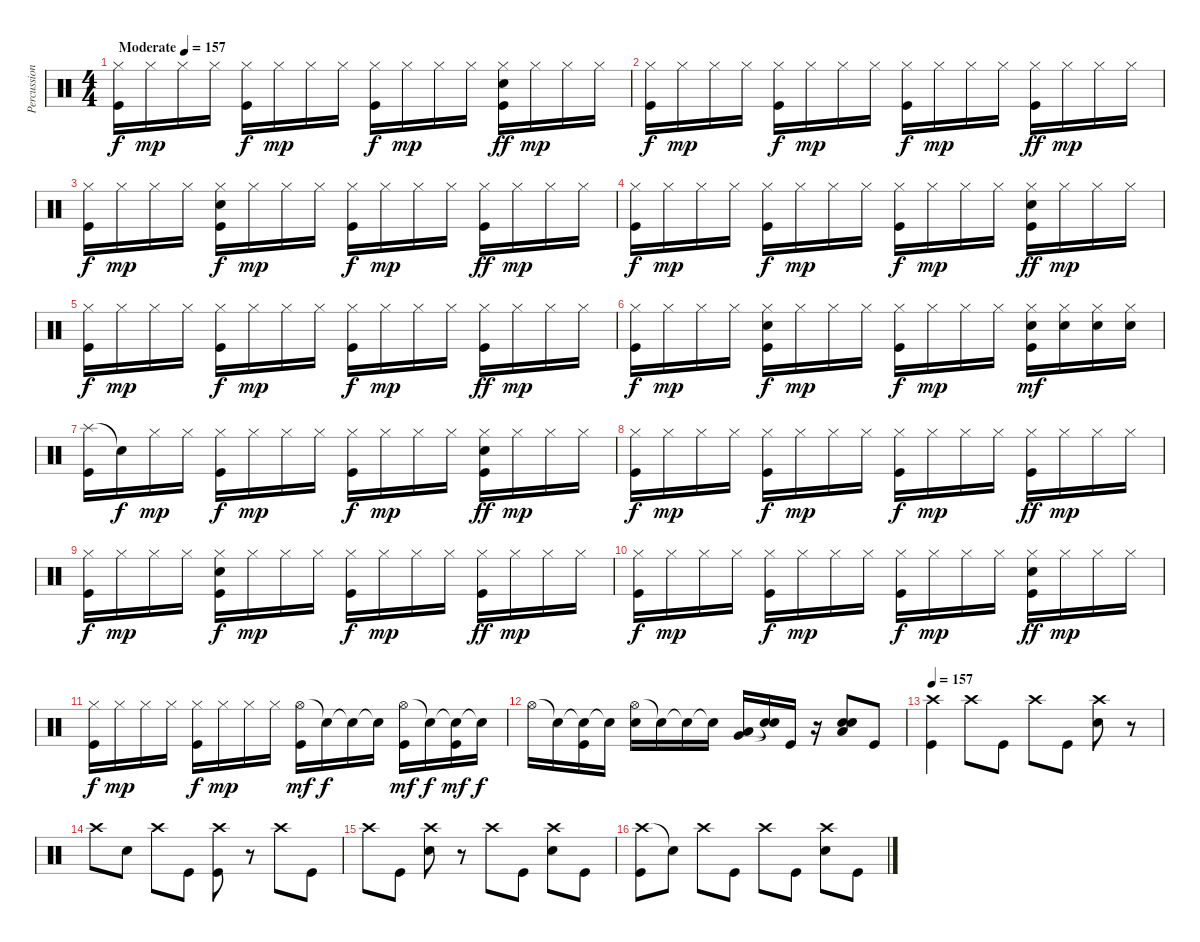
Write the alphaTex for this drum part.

\track ("Percussion" "Percussion") {instrument percussion}
\staff {score}
\articulation defaults
\ts (4 4)
\tempo (157 "Moderate")
\clef neutral
\ks c
("Hi-Hat (closed)" "Kick (hit)").16{dy f} "Hi-Hat (closed)".16{dy mp} "Hi-Hat (closed)".16 "Hi-Hat (closed)".16 ("Hi-Hat (closed)" "Kick (hit)").16{dy f} "Hi-Hat (closed)".16{dy mp} "Hi-Hat (closed)".16 "Hi-Hat (closed)".16 ("Hi-Hat (closed)" "Kick (hit)").16{dy f} "Hi-Hat (closed)".16{dy mp} "Hi-Hat (closed)".16 "Hi-Hat (closed)".16 ("Hi-Hat (closed)" "Electric Snare (hit)" "Kick (hit)").16{dy ff} "Hi-Hat (closed)".16{dy mp} "Hi-Hat (closed)".16 "Hi-Hat (closed)".16 |
("Hi-Hat (closed)" "Kick (hit)").16{dy f} "Hi-Hat (closed)".16{dy mp} "Hi-Hat (closed)".16 "Hi-Hat (closed)".16 ("Hi-Hat (closed)" "Kick (hit)").16{dy f} "Hi-Hat (closed)".16{dy mp} "Hi-Hat (closed)".16 "Hi-Hat (closed)".16 ("Hi-Hat (closed)" "Kick (hit)").16{dy f} "Hi-Hat (closed)".16{dy mp} "Hi-Hat (closed)".16 "Hi-Hat (closed)".16 ("Hi-Hat (closed)" "Kick (hit)").16{dy ff} "Hi-Hat (closed)".16{dy mp} "Hi-Hat (closed)".16 "Hi-Hat (closed)".16 |
("Hi-Hat (closed)" "Kick (hit)").16{dy f} "Hi-Hat (closed)".16{dy mp} "Hi-Hat (closed)".16 "Hi-Hat (closed)".16 ("Hi-Hat (closed)" "Electric Snare (hit)" "Kick (hit)").16{dy f} "Hi-Hat (closed)".16{dy mp} "Hi-Hat (closed)".16 "Hi-Hat (closed)".16 ("Hi-Hat (closed)" "Kick (hit)").16{dy f} "Hi-Hat (closed)".16{dy mp} "Hi-Hat (closed)".16 "Hi-Hat (closed)".16 ("Hi-Hat (closed)" "Kick (hit)").16{dy ff} "Hi-Hat (closed)".16{dy mp} "Hi-Hat (closed)".16 "Hi-Hat (closed)".16 |
("Hi-Hat (closed)" "Kick (hit)").16{dy f} "Hi-Hat (closed)".16{dy mp} "Hi-Hat (closed)".16 "Hi-Hat (closed)".16 ("Hi-Hat (closed)" "Kick (hit)").16{dy f} "Hi-Hat (closed)".16{dy mp} "Hi-Hat (closed)".16 "Hi-Hat (closed)".16 ("Hi-Hat (closed)" "Kick (hit)").16{dy f} "Hi-Hat (closed)".16{dy mp} "Hi-Hat (closed)".16 "Hi-Hat (closed)".16 ("Hi-Hat (closed)" "Electric Snare (hit)" "Kick (hit)").16{dy ff} "Hi-Hat (closed)".16{dy mp} "Hi-Hat (closed)".16 "Hi-Hat (closed)".16 |
("Hi-Hat (closed)" "Kick (hit)").16{dy f} "Hi-Hat (closed)".16{dy mp} "Hi-Hat (closed)".16 "Hi-Hat (closed)".16 ("Hi-Hat (closed)" "Kick (hit)").16{dy f} "Hi-Hat (closed)".16{dy mp} "Hi-Hat (closed)".16 "Hi-Hat (closed)".16 ("Hi-Hat (closed)" "Kick (hit)").16{dy f} "Hi-Hat (closed)".16{dy mp} "Hi-Hat (closed)".16 "Hi-Hat (closed)".16 ("Hi-Hat (closed)" "Kick (hit)").16{dy ff} "Hi-Hat (closed)".16{dy mp} "Hi-Hat (closed)".16 "Hi-Hat (closed)".16 |
("Hi-Hat (closed)" "Kick (hit)").16{dy f} "Hi-Hat (closed)".16{dy mp} "Hi-Hat (closed)".16 "Hi-Hat (closed)".16 ("Hi-Hat (closed)" "Electric Snare (hit)" "Kick (hit)").16{dy f} "Hi-Hat (closed)".16{dy mp} "Hi-Hat (closed)".16 "Hi-Hat (closed)".16 ("Hi-Hat (closed)" "Kick (hit)").16{dy f} "Hi-Hat (closed)".16{dy mp} "Hi-Hat (closed)".16 "Hi-Hat (closed)".16 ("Hi-Hat (closed)" "Electric Snare (hit)" "Kick (hit)").16{dy mf} ("Hi-Hat (closed)" "Electric Snare (hit)").16 ("Hi-Hat (closed)" "Electric Snare (hit)").16 ("Hi-Hat (closed)" "Electric Snare (hit)").16 |
("Splash (hit)" "Kick (hit)").16 "Snare (hit)"{t}.16{dy f} "Hi-Hat (closed)".16{dy mp} "Hi-Hat (closed)".16 ("Hi-Hat (closed)" "Kick (hit)").16{dy f} "Hi-Hat (closed)".16{dy mp} "Hi-Hat (closed)".16 "Hi-Hat (closed)".16 ("Hi-Hat (closed)" "Kick (hit)").16{dy f} "Hi-Hat (closed)".16{dy mp} "Hi-Hat (closed)".16 "Hi-Hat (closed)".16 ("Hi-Hat (closed)" "Electric Snare (hit)" "Kick (hit)").16{dy ff} "Hi-Hat (closed)".16{dy mp} "Hi-Hat (closed)".16 "Hi-Hat (closed)".16 |
("Hi-Hat (closed)" "Kick (hit)").16{dy f} "Hi-Hat (closed)".16{dy mp} "Hi-Hat (closed)".16 "Hi-Hat (closed)".16 ("Hi-Hat (closed)" "Kick (hit)").16{dy f} "Hi-Hat (closed)".16{dy mp} "Hi-Hat (closed)".16 "Hi-Hat (closed)".16 ("Hi-Hat (closed)" "Kick (hit)").16{dy f} "Hi-Hat (closed)".16{dy mp} "Hi-Hat (closed)".16 "Hi-Hat (closed)".16 ("Hi-Hat (closed)" "Kick (hit)").16{dy ff} "Hi-Hat (closed)".16{dy mp} "Hi-Hat (closed)".16 "Hi-Hat (closed)".16 |
("Hi-Hat (closed)" "Kick (hit)").16{dy f} "Hi-Hat (closed)".16{dy mp} "Hi-Hat (closed)".16 "Hi-Hat (closed)".16 ("Hi-Hat (closed)" "Electric Snare (hit)" "Kick (hit)").16{dy f} "Hi-Hat (closed)".16{dy mp} "Hi-Hat (closed)".16 "Hi-Hat (closed)".16 ("Hi-Hat (closed)" "Kick (hit)").16{dy f} "Hi-Hat (closed)".16{dy mp} "Hi-Hat (closed)".16 "Hi-Hat (closed)".16 ("Hi-Hat (closed)" "Kick (hit)").16{dy ff} "Hi-Hat (closed)".16{dy mp} "Hi-Hat (closed)".16 "Hi-Hat (closed)".16 |
("Hi-Hat (closed)" "Kick (hit)").16{dy f} "Hi-Hat (closed)".16{dy mp} "Hi-Hat (closed)".16 "Hi-Hat (closed)".16 ("Hi-Hat (closed)" "Kick (hit)").16{dy f} "Hi-Hat (closed)".16{dy mp} "Hi-Hat (closed)".16 "Hi-Hat (closed)".16 ("Hi-Hat (closed)" "Kick (hit)").16{dy f} "Hi-Hat (closed)".16{dy mp} "Hi-Hat (closed)".16 "Hi-Hat (closed)".16 ("Hi-Hat (closed)" "Electric Snare (hit)" "Kick (hit)").16{dy ff} "Hi-Hat (closed)".16{dy mp} "Hi-Hat (closed)".16 "Hi-Hat (closed)".16 |
("Hi-Hat (closed)" "Kick (hit)").16{dy f} "Hi-Hat (closed)".16{dy mp} "Hi-Hat (closed)".16 "Hi-Hat (closed)".16 ("Hi-Hat (closed)" "Kick (hit)").16{dy f} "Hi-Hat (closed)".16{dy mp} "Hi-Hat (closed)".16 "Hi-Hat (closed)".16 ("Hi-Hat (open)" "Kick (hit)").16{dy mf} "Snare (hit)"{t}.16{dy f} "Snare (hit)"{t}.16 "Snare (hit)"{t}.16 ("Hi-Hat (open)" "Kick (hit)").16{dy mf} "Snare (hit)"{t}.16{dy f} ("Snare (hit)"{t} "Kick (hit)").16{dy mf} "Snare (hit)"{t}.16{dy f} |
"Hi-Hat (open)".16 "Snare (hit)"{t}.16 ("Snare (hit)"{t} "Kick (hit)").16 "Snare (hit)"{t}.16 ("Hi-Hat (open)" "Electric Snare (hit)").16 "Snare (hit)"{t}.16 "Snare (hit)"{t}.16 "Snare (hit)"{t}.16 ("Low Floor Tom (hit)" "Very Low Tom (hit)").16 ("Snare (hit)"{t} "Snare (hit)"{t}).16 "Kick (hit)".16 r.16 ("Low Floor Tom (hit)" "Electric Snare (hit)" "Electric Snare (hit)").8 "Kick (hit)".8 |
\tempo 157
("Crash high (hit)" "Kick (hit)").4 "Crash high (hit)".8 "Kick (hit)".8 "Crash high (hit)".8 "Kick (hit)".8 ("Crash high (hit)" "Electric Snare (hit)").8 r.8 |
"Crash high (hit)".8 "Electric Snare (hit)".8 "Crash high (hit)".8 "Kick (hit)".8 ("Crash high (hit)" "Kick (hit)").8 r.8 "Crash high (hit)".8 "Kick (hit)".8 |
"Crash high (hit)".8 "Kick (hit)".8 ("Crash high (hit)" "Electric Snare (hit)").8 r.8 "Crash high (hit)".8 "Kick (hit)".8 ("Crash high (hit)" "Electric Snare (hit)").8 "Kick (hit)".8 |
("Crash high (hit)" "Kick (hit)").8 "Snare (hit)"{t}.8 "Crash high (hit)".8 "Kick (hit)".8 "Crash high (hit)".8 "Kick (hit)".8 ("Crash high (hit)" "Electric Snare (hit)").8 "Kick (hit)".8
